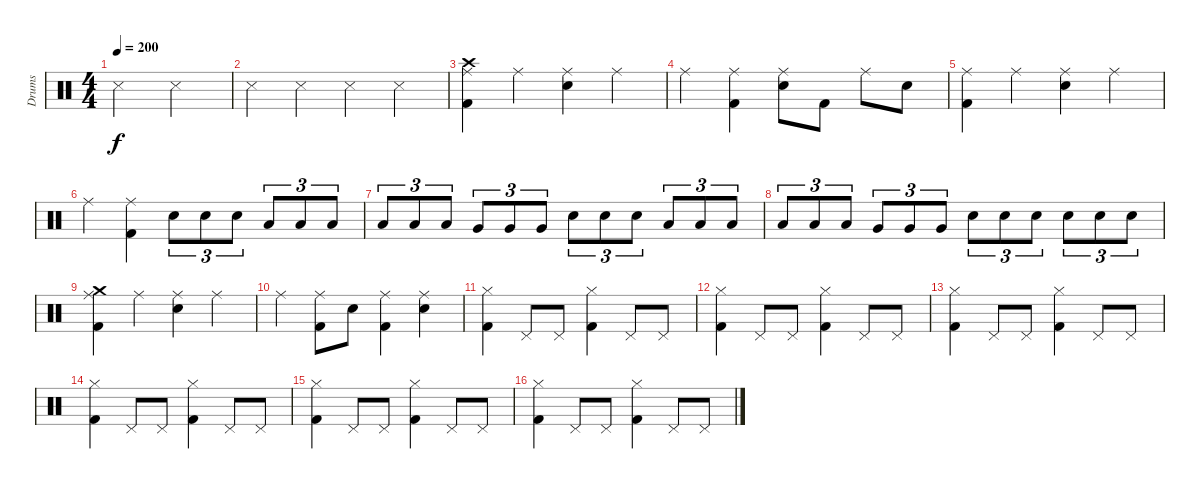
\track ("Drums" "Drums") {instrument percussion}
\staff {score}
\articulation defaults
\ts (4 4)
\tempo 200
\clef neutral
\ks c "Snare (side stick) 3".2{dy f} "Snare (side stick) 3".2
|
"Snare (side stick) 3".4 "Snare (side stick) 3".4 "Snare (side stick) 3".4 "Snare (side stick) 3".4 |
("Ride (middle)" "Crash high (hit)" "Kick (hit) 2").4 "Ride (middle)".4 ("Ride (middle)" "Snare (hit) 2").4 "Ride (middle)".4 |
"Ride (middle)".4 ("Ride (middle)" "Kick (hit) 2").4 ("Ride (middle)" "Snare (hit) 2").8 "Kick (hit) 2".8 "Ride (middle)".8 "Snare (hit) 2".8 |
("Ride (middle)" "Kick (hit) 2").4 "Ride (middle)".4 ("Ride (middle)" "Snare (hit) 2").4 "Ride (middle)".4 |
"Ride (middle)".4 ("Ride (middle)" "Kick (hit) 2").4 "Snare (hit) 2".8{tu (3 2)} "Snare (hit) 2".8{tu (3 2)} "Snare (hit) 2".8{tu (3 2)} "Low Floor Tom (hit)".8{tu (3 2)} "Low Floor Tom (hit)".8{tu (3 2)} "Low Floor Tom (hit)".8{tu (3 2)} |
"Low Tom (hit)".8{tu (3 2)} "Low Tom (hit)".8{tu (3 2)} "Low Tom (hit)".8{tu (3 2)} "Very Low Tom (hit)".8{tu (3 2)} "Very Low Tom (hit)".8{tu (3 2)} "Very Low Tom (hit)".8{tu (3 2)} "Snare (hit) 2".8{tu (3 2)} "Snare (hit) 2".8{tu (3 2)} "Snare (hit) 2".8{tu (3 2)} "Low Floor Tom (hit)".8{tu (3 2)} "Low Floor Tom (hit)".8{tu (3 2)} "Low Floor Tom (hit)".8{tu (3 2)} |
"Low Tom (hit)".8{tu (3 2)} "Low Tom (hit)".8{tu (3 2)} "Low Tom (hit)".8{tu (3 2)} "Very Low Tom (hit)".8{tu (3 2)} "Very Low Tom (hit)".8{tu (3 2)} "Very Low Tom (hit)".8{tu (3 2)} "Snare (hit) 2".8{tu (3 2)} "Snare (hit) 2".8{tu (3 2)} "Snare (hit) 2".8{tu (3 2)} "Snare (hit) 2".8{tu (3 2)} "Snare (hit) 2".8{tu (3 2)} "Snare (hit) 2".8{tu (3 2)} |
("Ride (middle)" "Crash medium (hit)" "Kick (hit) 2").4 "Ride (middle)".4 ("Ride (middle)" "Snare (hit) 2").4 "Ride (middle)".4 |
"Ride (middle)".4 ("Ride (middle)" "Kick (hit) 2").8 "Snare (hit) 2".8 ("Ride (middle)" "Kick (hit) 2").4 ("Ride (middle)" "Snare (hit) 2").4 |
("Hi-Hat (closed)" "Kick (hit) 2").4 "Pedal Hi-Hat (hit)".8 "Pedal Hi-Hat (hit)".8 ("Hi-Hat (closed)" "Kick (hit) 2").4 "Pedal Hi-Hat (hit)".8 "Pedal Hi-Hat (hit)".8 |
("Hi-Hat (closed)" "Kick (hit) 2").4 "Pedal Hi-Hat (hit)".8 "Pedal Hi-Hat (hit)".8 ("Hi-Hat (closed)" "Kick (hit) 2").4 "Pedal Hi-Hat (hit)".8 "Pedal Hi-Hat (hit)".8 |
("Hi-Hat (closed)" "Kick (hit) 2").4 "Pedal Hi-Hat (hit)".8 "Pedal Hi-Hat (hit)".8 ("Hi-Hat (closed)" "Kick (hit) 2").4 "Pedal Hi-Hat (hit)".8 "Pedal Hi-Hat (hit)".8 |
("Hi-Hat (closed)" "Kick (hit) 2").4 "Pedal Hi-Hat (hit)".8 "Pedal Hi-Hat (hit)".8 ("Hi-Hat (closed)" "Kick (hit) 2").4 "Pedal Hi-Hat (hit)".8 "Pedal Hi-Hat (hit)".8 |
("Hi-Hat (closed)" "Kick (hit) 2").4 "Pedal Hi-Hat (hit)".8 "Pedal Hi-Hat (hit)".8 ("Hi-Hat (closed)" "Kick (hit) 2").4 "Pedal Hi-Hat (hit)".8 "Pedal Hi-Hat (hit)".8 |
("Hi-Hat (closed)" "Kick (hit) 2").4 "Pedal Hi-Hat (hit)".8 "Pedal Hi-Hat (hit)".8 ("Hi-Hat (closed)" "Kick (hit) 2").4 "Pedal Hi-Hat (hit)".8 "Pedal Hi-Hat (hit)".8
